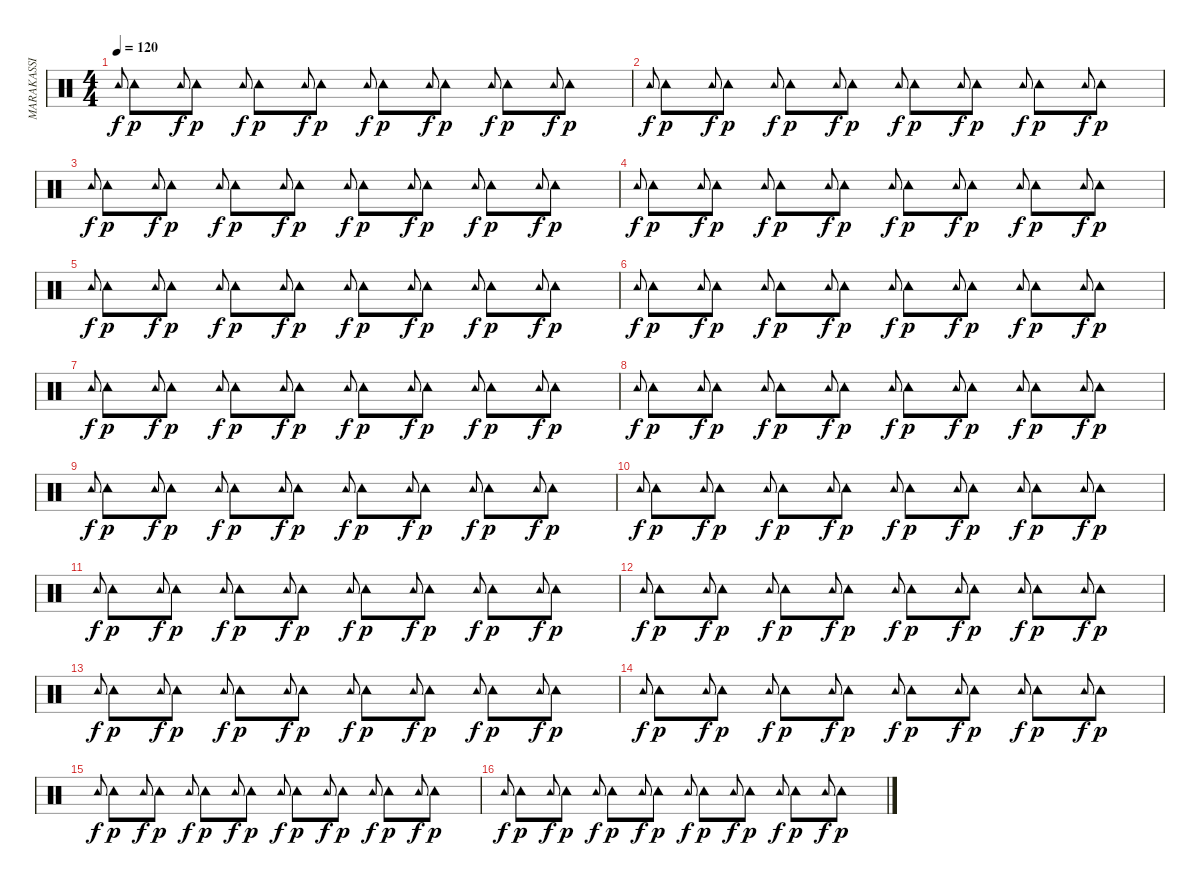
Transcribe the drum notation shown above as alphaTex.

\track ("MARAKASSI" "MARAKASSI") {instrument percussion}
\staff {score}
\articulation defaults
\ts (4 4)
\tempo 120
\clef neutral
\ks c "Tambourine (hit)".8{gr onbeat dy f} "Tambourine (hit)".8{dy p} "Tambourine (hit)".8{gr onbeat dy f} "Tambourine (hit)".8{dy p} "Tambourine (hit)".8{gr onbeat dy f} "Tambourine (hit)".8{dy p} "Tambourine (hit)".8{gr onbeat dy f} "Tambourine (hit)".8{dy p} "Tambourine (hit)".8{gr onbeat dy f} "Tambourine (hit)".8{dy p} "Tambourine (hit)".8{gr onbeat dy f} "Tambourine (hit)".8{dy p} "Tambourine (hit)".8{gr onbeat dy f} "Tambourine (hit)".8{dy p} "Tambourine (hit)".8{gr onbeat dy f} "Tambourine (hit)".8{dy p}
|
"Tambourine (hit)".8{gr onbeat dy f} "Tambourine (hit)".8{dy p} "Tambourine (hit)".8{gr onbeat dy f} "Tambourine (hit)".8{dy p} "Tambourine (hit)".8{gr onbeat dy f} "Tambourine (hit)".8{dy p} "Tambourine (hit)".8{gr onbeat dy f} "Tambourine (hit)".8{dy p} "Tambourine (hit)".8{gr onbeat dy f} "Tambourine (hit)".8{dy p} "Tambourine (hit)".8{gr onbeat dy f} "Tambourine (hit)".8{dy p} "Tambourine (hit)".8{gr onbeat dy f} "Tambourine (hit)".8{dy p} "Tambourine (hit)".8{gr onbeat dy f} "Tambourine (hit)".8{dy p} |
"Tambourine (hit)".8{gr onbeat dy f} "Tambourine (hit)".8{dy p} "Tambourine (hit)".8{gr onbeat dy f} "Tambourine (hit)".8{dy p} "Tambourine (hit)".8{gr onbeat dy f} "Tambourine (hit)".8{dy p} "Tambourine (hit)".8{gr onbeat dy f} "Tambourine (hit)".8{dy p} "Tambourine (hit)".8{gr onbeat dy f} "Tambourine (hit)".8{dy p} "Tambourine (hit)".8{gr onbeat dy f} "Tambourine (hit)".8{dy p} "Tambourine (hit)".8{gr onbeat dy f} "Tambourine (hit)".8{dy p} "Tambourine (hit)".8{gr onbeat dy f} "Tambourine (hit)".8{dy p} |
"Tambourine (hit)".8{gr onbeat dy f} "Tambourine (hit)".8{dy p} "Tambourine (hit)".8{gr onbeat dy f} "Tambourine (hit)".8{dy p} "Tambourine (hit)".8{gr onbeat dy f} "Tambourine (hit)".8{dy p} "Tambourine (hit)".8{gr onbeat dy f} "Tambourine (hit)".8{dy p} "Tambourine (hit)".8{gr onbeat dy f} "Tambourine (hit)".8{dy p} "Tambourine (hit)".8{gr onbeat dy f} "Tambourine (hit)".8{dy p} "Tambourine (hit)".8{gr onbeat dy f} "Tambourine (hit)".8{dy p} "Tambourine (hit)".8{gr onbeat dy f} "Tambourine (hit)".8{dy p} |
"Tambourine (hit)".8{gr onbeat dy f} "Tambourine (hit)".8{dy p} "Tambourine (hit)".8{gr onbeat dy f} "Tambourine (hit)".8{dy p} "Tambourine (hit)".8{gr onbeat dy f} "Tambourine (hit)".8{dy p} "Tambourine (hit)".8{gr onbeat dy f} "Tambourine (hit)".8{dy p} "Tambourine (hit)".8{gr onbeat dy f} "Tambourine (hit)".8{dy p} "Tambourine (hit)".8{gr onbeat dy f} "Tambourine (hit)".8{dy p} "Tambourine (hit)".8{gr onbeat dy f} "Tambourine (hit)".8{dy p} "Tambourine (hit)".8{gr onbeat dy f} "Tambourine (hit)".8{dy p} |
"Tambourine (hit)".8{gr onbeat dy f} "Tambourine (hit)".8{dy p} "Tambourine (hit)".8{gr onbeat dy f} "Tambourine (hit)".8{dy p} "Tambourine (hit)".8{gr onbeat dy f} "Tambourine (hit)".8{dy p} "Tambourine (hit)".8{gr onbeat dy f} "Tambourine (hit)".8{dy p} "Tambourine (hit)".8{gr onbeat dy f} "Tambourine (hit)".8{dy p} "Tambourine (hit)".8{gr onbeat dy f} "Tambourine (hit)".8{dy p} "Tambourine (hit)".8{gr onbeat dy f} "Tambourine (hit)".8{dy p} "Tambourine (hit)".8{gr onbeat dy f} "Tambourine (hit)".8{dy p} |
"Tambourine (hit)".8{gr onbeat dy f} "Tambourine (hit)".8{dy p} "Tambourine (hit)".8{gr onbeat dy f} "Tambourine (hit)".8{dy p} "Tambourine (hit)".8{gr onbeat dy f} "Tambourine (hit)".8{dy p} "Tambourine (hit)".8{gr onbeat dy f} "Tambourine (hit)".8{dy p} "Tambourine (hit)".8{gr onbeat dy f} "Tambourine (hit)".8{dy p} "Tambourine (hit)".8{gr onbeat dy f} "Tambourine (hit)".8{dy p} "Tambourine (hit)".8{gr onbeat dy f} "Tambourine (hit)".8{dy p} "Tambourine (hit)".8{gr onbeat dy f} "Tambourine (hit)".8{dy p} |
"Tambourine (hit)".8{gr onbeat dy f} "Tambourine (hit)".8{dy p} "Tambourine (hit)".8{gr onbeat dy f} "Tambourine (hit)".8{dy p} "Tambourine (hit)".8{gr onbeat dy f} "Tambourine (hit)".8{dy p} "Tambourine (hit)".8{gr onbeat dy f} "Tambourine (hit)".8{dy p} "Tambourine (hit)".8{gr onbeat dy f} "Tambourine (hit)".8{dy p} "Tambourine (hit)".8{gr onbeat dy f} "Tambourine (hit)".8{dy p} "Tambourine (hit)".8{gr onbeat dy f} "Tambourine (hit)".8{dy p} "Tambourine (hit)".8{gr onbeat dy f} "Tambourine (hit)".8{dy p} |
"Tambourine (hit)".8{gr onbeat dy f} "Tambourine (hit)".8{dy p} "Tambourine (hit)".8{gr onbeat dy f} "Tambourine (hit)".8{dy p} "Tambourine (hit)".8{gr onbeat dy f} "Tambourine (hit)".8{dy p} "Tambourine (hit)".8{gr onbeat dy f} "Tambourine (hit)".8{dy p} "Tambourine (hit)".8{gr onbeat dy f} "Tambourine (hit)".8{dy p} "Tambourine (hit)".8{gr onbeat dy f} "Tambourine (hit)".8{dy p} "Tambourine (hit)".8{gr onbeat dy f} "Tambourine (hit)".8{dy p} "Tambourine (hit)".8{gr onbeat dy f} "Tambourine (hit)".8{dy p} |
"Tambourine (hit)".8{gr onbeat dy f} "Tambourine (hit)".8{dy p} "Tambourine (hit)".8{gr onbeat dy f} "Tambourine (hit)".8{dy p} "Tambourine (hit)".8{gr onbeat dy f} "Tambourine (hit)".8{dy p} "Tambourine (hit)".8{gr onbeat dy f} "Tambourine (hit)".8{dy p} "Tambourine (hit)".8{gr onbeat dy f} "Tambourine (hit)".8{dy p} "Tambourine (hit)".8{gr onbeat dy f} "Tambourine (hit)".8{dy p} "Tambourine (hit)".8{gr onbeat dy f} "Tambourine (hit)".8{dy p} "Tambourine (hit)".8{gr onbeat dy f} "Tambourine (hit)".8{dy p} |
"Tambourine (hit)".8{gr onbeat dy f} "Tambourine (hit)".8{dy p} "Tambourine (hit)".8{gr onbeat dy f} "Tambourine (hit)".8{dy p} "Tambourine (hit)".8{gr onbeat dy f} "Tambourine (hit)".8{dy p} "Tambourine (hit)".8{gr onbeat dy f} "Tambourine (hit)".8{dy p} "Tambourine (hit)".8{gr onbeat dy f} "Tambourine (hit)".8{dy p} "Tambourine (hit)".8{gr onbeat dy f} "Tambourine (hit)".8{dy p} "Tambourine (hit)".8{gr onbeat dy f} "Tambourine (hit)".8{dy p} "Tambourine (hit)".8{gr onbeat dy f} "Tambourine (hit)".8{dy p} |
"Tambourine (hit)".8{gr onbeat dy f} "Tambourine (hit)".8{dy p} "Tambourine (hit)".8{gr onbeat dy f} "Tambourine (hit)".8{dy p} "Tambourine (hit)".8{gr onbeat dy f} "Tambourine (hit)".8{dy p} "Tambourine (hit)".8{gr onbeat dy f} "Tambourine (hit)".8{dy p} "Tambourine (hit)".8{gr onbeat dy f} "Tambourine (hit)".8{dy p} "Tambourine (hit)".8{gr onbeat dy f} "Tambourine (hit)".8{dy p} "Tambourine (hit)".8{gr onbeat dy f} "Tambourine (hit)".8{dy p} "Tambourine (hit)".8{gr onbeat dy f} "Tambourine (hit)".8{dy p} |
"Tambourine (hit)".8{gr onbeat dy f} "Tambourine (hit)".8{dy p} "Tambourine (hit)".8{gr onbeat dy f} "Tambourine (hit)".8{dy p} "Tambourine (hit)".8{gr onbeat dy f} "Tambourine (hit)".8{dy p} "Tambourine (hit)".8{gr onbeat dy f} "Tambourine (hit)".8{dy p} "Tambourine (hit)".8{gr onbeat dy f} "Tambourine (hit)".8{dy p} "Tambourine (hit)".8{gr onbeat dy f} "Tambourine (hit)".8{dy p} "Tambourine (hit)".8{gr onbeat dy f} "Tambourine (hit)".8{dy p} "Tambourine (hit)".8{gr onbeat dy f} "Tambourine (hit)".8{dy p} |
"Tambourine (hit)".8{gr onbeat dy f} "Tambourine (hit)".8{dy p} "Tambourine (hit)".8{gr onbeat dy f} "Tambourine (hit)".8{dy p} "Tambourine (hit)".8{gr onbeat dy f} "Tambourine (hit)".8{dy p} "Tambourine (hit)".8{gr onbeat dy f} "Tambourine (hit)".8{dy p} "Tambourine (hit)".8{gr onbeat dy f} "Tambourine (hit)".8{dy p} "Tambourine (hit)".8{gr onbeat dy f} "Tambourine (hit)".8{dy p} "Tambourine (hit)".8{gr onbeat dy f} "Tambourine (hit)".8{dy p} "Tambourine (hit)".8{gr onbeat dy f} "Tambourine (hit)".8{dy p} |
"Tambourine (hit)".8{gr onbeat dy f} "Tambourine (hit)".8{dy p} "Tambourine (hit)".8{gr onbeat dy f} "Tambourine (hit)".8{dy p} "Tambourine (hit)".8{gr onbeat dy f} "Tambourine (hit)".8{dy p} "Tambourine (hit)".8{gr onbeat dy f} "Tambourine (hit)".8{dy p} "Tambourine (hit)".8{gr onbeat dy f} "Tambourine (hit)".8{dy p} "Tambourine (hit)".8{gr onbeat dy f} "Tambourine (hit)".8{dy p} "Tambourine (hit)".8{gr onbeat dy f} "Tambourine (hit)".8{dy p} "Tambourine (hit)".8{gr onbeat dy f} "Tambourine (hit)".8{dy p} |
"Tambourine (hit)".8{gr onbeat dy f} "Tambourine (hit)".8{dy p} "Tambourine (hit)".8{gr onbeat dy f} "Tambourine (hit)".8{dy p} "Tambourine (hit)".8{gr onbeat dy f} "Tambourine (hit)".8{dy p} "Tambourine (hit)".8{gr onbeat dy f} "Tambourine (hit)".8{dy p} "Tambourine (hit)".8{gr onbeat dy f} "Tambourine (hit)".8{dy p} "Tambourine (hit)".8{gr onbeat dy f} "Tambourine (hit)".8{dy p} "Tambourine (hit)".8{gr onbeat dy f} "Tambourine (hit)".8{dy p} "Tambourine (hit)".8{gr onbeat dy f} "Tambourine (hit)".8{dy p}
